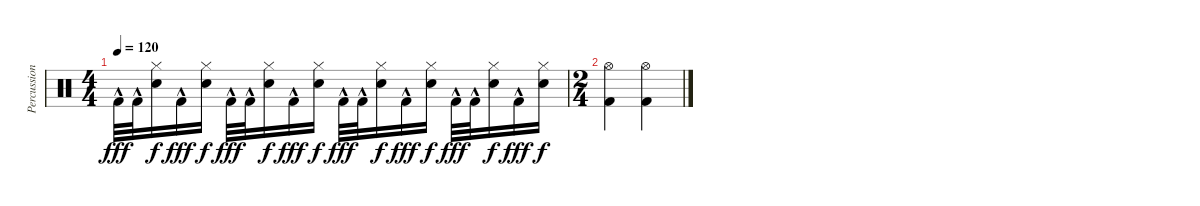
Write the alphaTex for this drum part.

\track ("Percussion" "Percussion") {instrument percussion}
\staff {score}
\articulation defaults
\ts (4 4)
\tempo 120
\clef neutral
\ks c "Kick (hit) 2"{hac}.32{dy fff} "Kick (hit) 2"{hac}.32
("Hi-Hat (closed)" "Snare (hit) 2").16{dy f} "Kick (hit) 2"{hac}.16{dy fff} ("Hi-Hat (closed)" "Snare (hit) 2").16{dy f} "Kick (hit) 2"{hac}.32{dy fff} "Kick (hit) 2"{hac}.32 ("Hi-Hat (closed)" "Snare (hit) 2").16{dy f} "Kick (hit) 2"{hac}.16{dy fff} ("Hi-Hat (closed)" "Snare (hit) 2").16{dy f} "Kick (hit) 2"{hac}.32{dy fff} "Kick (hit) 2"{hac}.32 ("Hi-Hat (closed)" "Snare (hit) 2").16{dy f} "Kick (hit) 2"{hac}.16{dy fff} ("Hi-Hat (closed)" "Snare (hit) 2").16{dy f} "Kick (hit) 2"{hac}.32{dy fff} "Kick (hit) 2"{hac}.32 ("Hi-Hat (closed)" "Snare (hit) 2").16{dy f} "Kick (hit) 2"{hac}.16{dy fff} ("Hi-Hat (closed)" "Snare (hit) 2").16{dy f} |
\ts (2 4)
("Hi-Hat (open)" "Kick (hit) 2").4 ("Hi-Hat (open)" "Kick (hit) 2").4
